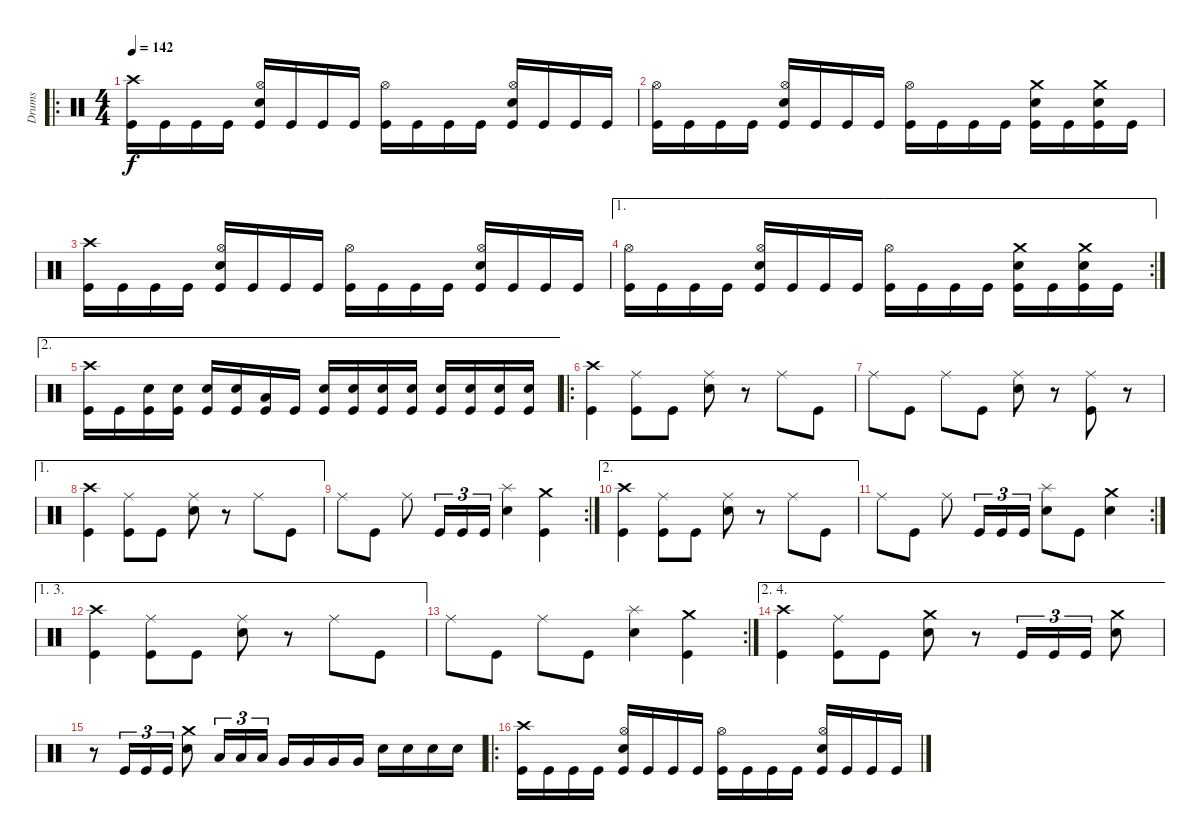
\track ("Drums" "Drums") {instrument percussion}
\staff {score}
\articulation defaults
\ro
\ts (4 4)
\tempo 142
\clef neutral
\ks c
("Crash high (hit)" "Kick (hit)").16{dy f} "Kick (hit)".16 "Kick (hit)".16 "Kick (hit)".16 ("Hi-Hat (open)" "Electric Snare (hit)" "Kick (hit)").16 "Kick (hit)".16 "Kick (hit)".16 "Kick (hit)".16 ("Hi-Hat (open)" "Kick (hit)").16 "Kick (hit)".16 "Kick (hit)".16 "Kick (hit)".16 ("Hi-Hat (open)" "Electric Snare (hit)" "Kick (hit)").16 "Kick (hit)".16 "Kick (hit)".16 "Kick (hit)".16 |
("Hi-Hat (open)" "Kick (hit)").16 "Kick (hit)".16 "Kick (hit)".16 "Kick (hit)".16 ("Hi-Hat (open)" "Electric Snare (hit)" "Kick (hit)").16 "Kick (hit)".16 "Kick (hit)".16 "Kick (hit)".16 ("Hi-Hat (open)" "Kick (hit)").16 "Kick (hit)".16 "Kick (hit)".16 "Kick (hit)".16 ("Crash medium (hit)" "Electric Snare (hit)" "Kick (hit)").16 "Kick (hit)".16 ("Crash medium (hit)" "Electric Snare (hit)" "Kick (hit)").16 "Kick (hit)".16 |
("Crash high (hit)" "Kick (hit)").16 "Kick (hit)".16 "Kick (hit)".16 "Kick (hit)".16 ("Hi-Hat (open)" "Electric Snare (hit)" "Kick (hit)").16 "Kick (hit)".16 "Kick (hit)".16 "Kick (hit)".16 ("Hi-Hat (open)" "Kick (hit)").16 "Kick (hit)".16 "Kick (hit)".16 "Kick (hit)".16 ("Hi-Hat (open)" "Electric Snare (hit)" "Kick (hit)").16 "Kick (hit)".16 "Kick (hit)".16 "Kick (hit)".16 |
\ae 1
\rc 2
("Hi-Hat (open)" "Kick (hit)").16 "Kick (hit)".16 "Kick (hit)".16 "Kick (hit)".16 ("Hi-Hat (open)" "Electric Snare (hit)" "Kick (hit)").16 "Kick (hit)".16 "Kick (hit)".16 "Kick (hit)".16 ("Hi-Hat (open)" "Kick (hit)").16 "Kick (hit)".16 "Kick (hit)".16 "Kick (hit)".16 ("Crash medium (hit)" "Electric Snare (hit)" "Kick (hit)").16 "Kick (hit)".16 ("Crash medium (hit)" "Electric Snare (hit)" "Kick (hit)").16 "Kick (hit)".16 |
\ae 2
("Crash high (hit)" "Kick (hit)").16 "Kick (hit)".16 ("Electric Snare (hit)" "Kick (hit)").16 ("Electric Snare (hit)" "Kick (hit)").16 ("Electric Snare (hit)" "Kick (hit)").16 ("Electric Snare (hit)" "Kick (hit)").16 ("Low Tom (hit)" "Kick (hit)").16 "Kick (hit)".16 ("Electric Snare (hit)" "Kick (hit)").16 ("Electric Snare (hit)" "Kick (hit)").16 ("Electric Snare (hit)" "Kick (hit)").16 ("Electric Snare (hit)" "Kick (hit)").16 ("Electric Snare (hit)" "Kick (hit)").16 ("Electric Snare (hit)" "Kick (hit)").16 ("Electric Snare (hit)" "Kick (hit)").16 ("Electric Snare (hit)" "Kick (hit)").16 |
\ro
("Crash high (hit)" "Kick (hit)").4 ("Ride (middle)" "Kick (hit)").8 "Kick (hit)".8 ("Ride (middle)" "Electric Snare (hit)").8 r.8 "Ride (middle)".8 "Kick (hit)".8 |
"Ride (middle)".8 "Kick (hit)".8 "Ride (middle)".8 "Kick (hit)".8 ("Ride (middle)" "Electric Snare (hit)").8 r.8 ("Ride (middle)" "Kick (hit)").8 r.8 |
\ae 1
("Crash high (hit)" "Kick (hit)").4 ("Ride (middle)" "Kick (hit)").8 "Kick (hit)".8 ("Ride (middle)" "Electric Snare (hit)").8 r.8 "Ride (middle)".8 "Kick (hit)".8 |
\rc 2 "Ride (middle)".8 "Kick (hit)".8 "Ride (middle)".8 "Kick (hit)".16{tu (3 2)} "Kick (hit)".16{tu (3 2)} "Kick (hit)".16{tu (3 2)}
("Splash (hit)" "Electric Snare (hit)").4 ("Crash medium (hit)" "Kick (hit)").4 |
\ae 2
("Crash high (hit)" "Kick (hit)").4 ("Ride (middle)" "Kick (hit)").8 "Kick (hit)".8 ("Ride (middle)" "Electric Snare (hit)").8 r.8 "Ride (middle)".8 "Kick (hit)".8 |
\rc 2 "Ride (middle)".8 "Kick (hit)".8 "Ride (middle)".8 "Kick (hit)".16{tu (3 2)} "Kick (hit)".16{tu (3 2)} "Kick (hit)".16{tu (3 2)}
("Splash (hit)" "Electric Snare (hit)").8 "Kick (hit)".8 ("Crash medium (hit)" "Electric Snare (hit)").4 |
\ae (1 3)
("Crash high (hit)" "Kick (hit)").4 ("Ride (middle)" "Kick (hit)").8 "Kick (hit)".8 ("Ride (middle)" "Electric Snare (hit)").8 r.8 "Ride (middle)".8 "Kick (hit)".8 |
\rc 2 "Ride (middle)".8 "Kick (hit)".8 "Ride (middle)".8 "Kick (hit)".8
("Splash (hit)" "Electric Snare (hit)").4 ("Crash medium (hit)" "Kick (hit)").4 |
\ae (2 4)
("Crash high (hit)" "Kick (hit)").4 ("Ride (middle)" "Kick (hit)").8 "Kick (hit)".8 ("Crash medium (hit)" "Electric Snare (hit)").8 r.8 "Kick (hit)".16{tu (3 2)} "Kick (hit)".16{tu (3 2)} "Kick (hit)".16{tu (3 2)} ("Crash medium (hit)" "Electric Snare (hit)").8 |
r.8 "Kick (hit)".16{tu (3 2)} "Kick (hit)".16{tu (3 2)} "Kick (hit)".16{tu (3 2)} ("Crash medium (hit)" "Electric Snare (hit)").8 "Low Tom (hit)".16{tu (3 2)} "Low Tom (hit)".16{tu (3 2)} "Low Tom (hit)".16{tu (3 2)} "Very Low Tom (hit)".16 "Very Low Tom (hit)".16 "Very Low Tom (hit)".16 "Very Low Tom (hit)".16 "Electric Snare (hit)".16 "Electric Snare (hit)".16 "Electric Snare (hit)".16 "Electric Snare (hit)".16 |
\ro
("Crash high (hit)" "Kick (hit)").16 "Kick (hit)".16 "Kick (hit)".16 "Kick (hit)".16 ("Hi-Hat (open)" "Electric Snare (hit)" "Kick (hit)").16 "Kick (hit)".16 "Kick (hit)".16 "Kick (hit)".16 ("Hi-Hat (open)" "Kick (hit)").16 "Kick (hit)".16 "Kick (hit)".16 "Kick (hit)".16 ("Hi-Hat (open)" "Electric Snare (hit)" "Kick (hit)").16 "Kick (hit)".16 "Kick (hit)".16 "Kick (hit)".16
